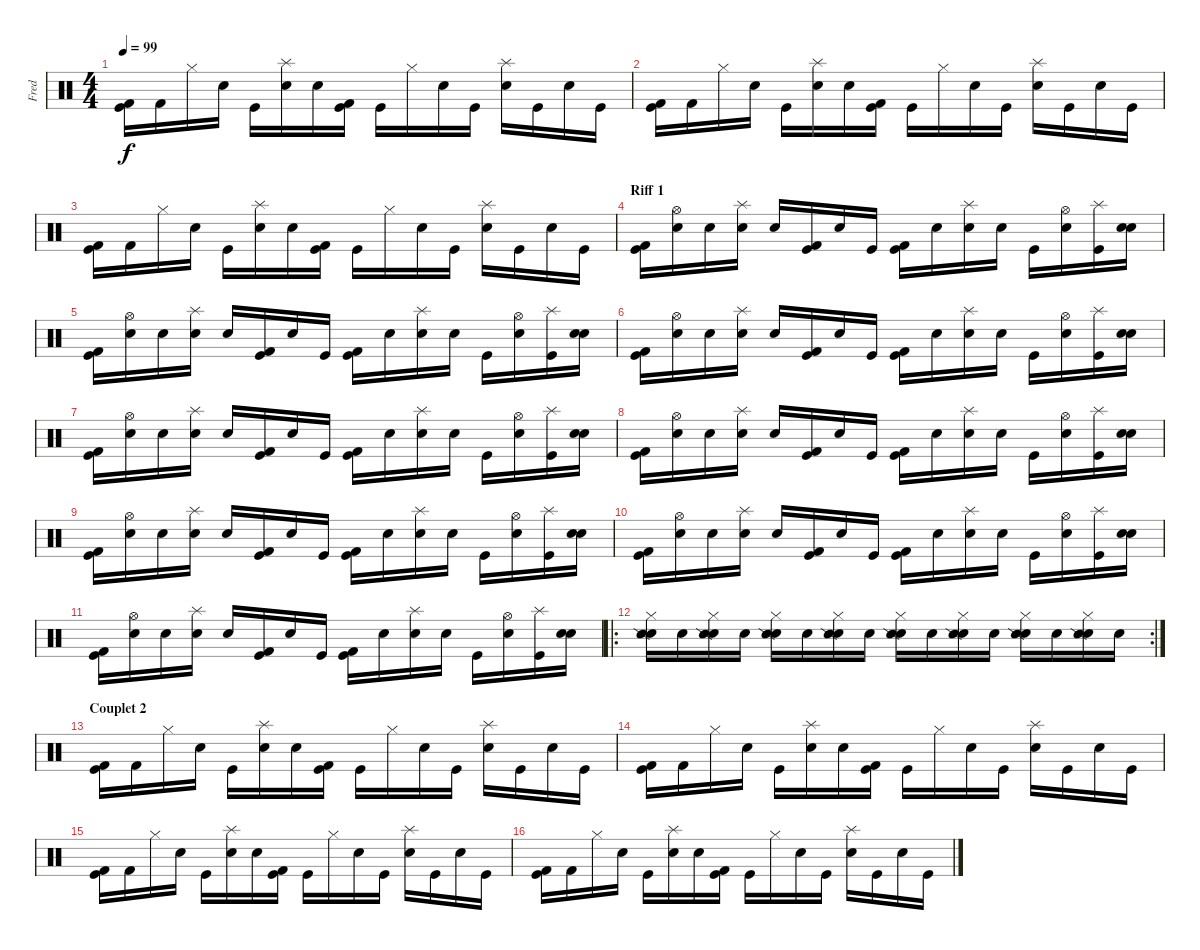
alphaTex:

\track ("Fred" "Fred") {instrument percussion}
\staff {score}
\articulation defaults
\ts (4 4)
\tempo 99
\clef neutral
\ks c
("Kick (hit) 2" "Kick (hit)").16{dy f} "Kick (hit) 2".16 "Hi-Hat (closed)".16 "Snare (hit)".16 "Kick (hit)".16 ("Snare (hit) 2" "Splash (hit)").16 "Snare (hit)".16 ("Kick (hit) 2" "Kick (hit)").16 "Kick (hit)".16 "Hi-Hat (closed)".16 "Snare (hit)".16 "Kick (hit)".16 ("Snare (hit) 2" "Splash (hit)").16 "Kick (hit)".16 "Snare (hit)".16 "Kick (hit)".16 |
("Kick (hit) 2" "Kick (hit)").16 "Kick (hit) 2".16 "Hi-Hat (closed)".16 "Snare (hit)".16 "Kick (hit)".16 ("Snare (hit) 2" "Splash (hit)").16 "Snare (hit)".16 ("Kick (hit) 2" "Kick (hit)").16 "Kick (hit)".16 "Hi-Hat (closed)".16 "Snare (hit)".16 "Kick (hit)".16 ("Snare (hit) 2" "Splash (hit)").16 "Kick (hit)".16 "Snare (hit)".16 "Kick (hit)".16 |
("Kick (hit) 2" "Kick (hit)").16 "Kick (hit) 2".16 "Hi-Hat (closed)".16 "Snare (hit)".16 "Kick (hit)".16 ("Snare (hit) 2" "Splash (hit)").16 "Snare (hit)".16 ("Kick (hit) 2" "Kick (hit)").16 "Kick (hit)".16 "Hi-Hat (closed)".16 "Snare (hit)".16 "Kick (hit)".16 ("Snare (hit) 2" "Splash (hit)").16 "Kick (hit)".16 "Snare (hit)".16 "Kick (hit)".16 |
\section ("" "Riff 1")
("Kick (hit)" "Kick (hit) 2").16 ("Hi-Hat (open)" "Snare (hit)").16 "Snare (hit)".16 ("Snare (hit) 2" "Splash (hit)").16 "Snare (hit)".16 ("Kick (hit)" "Kick (hit) 2").16 "Snare (hit)".16 "Kick (hit)".16 ("Kick (hit)" "Kick (hit) 2").16 "Snare (hit)".16 ("Snare (hit) 2" "Splash (hit)").16 "Snare (hit)".16 "Kick (hit)".16 ("Hi-Hat (open)" "Snare (hit)").16 ("Kick (hit)" "Splash (hit)").16 ("Snare (hit)" "Snare (hit)").16 |
("Kick (hit)" "Kick (hit) 2").16 ("Hi-Hat (open)" "Snare (hit)").16 "Snare (hit)".16 ("Snare (hit) 2" "Splash (hit)").16 "Snare (hit)".16 ("Kick (hit)" "Kick (hit) 2").16 "Snare (hit)".16 "Kick (hit)".16 ("Kick (hit)" "Kick (hit) 2").16 "Snare (hit)".16 ("Snare (hit) 2" "Splash (hit)").16 "Snare (hit)".16 "Kick (hit)".16 ("Hi-Hat (open)" "Snare (hit)").16 ("Kick (hit)" "Splash (hit)").16 ("Snare (hit)" "Snare (hit)").16 |
("Kick (hit)" "Kick (hit) 2").16 ("Hi-Hat (open)" "Snare (hit)").16 "Snare (hit)".16 ("Snare (hit) 2" "Splash (hit)").16 "Snare (hit)".16 ("Kick (hit)" "Kick (hit) 2").16 "Snare (hit)".16 "Kick (hit)".16 ("Kick (hit)" "Kick (hit) 2").16 "Snare (hit)".16 ("Snare (hit) 2" "Splash (hit)").16 "Snare (hit)".16 "Kick (hit)".16 ("Hi-Hat (open)" "Snare (hit)").16 ("Kick (hit)" "Splash (hit)").16 ("Snare (hit)" "Snare (hit)").16 |
("Kick (hit)" "Kick (hit) 2").16 ("Hi-Hat (open)" "Snare (hit)").16 "Snare (hit)".16 ("Snare (hit) 2" "Splash (hit)").16 "Snare (hit)".16 ("Kick (hit)" "Kick (hit) 2").16 "Snare (hit)".16 "Kick (hit)".16 ("Kick (hit)" "Kick (hit) 2").16 "Snare (hit)".16 ("Snare (hit) 2" "Splash (hit)").16 "Snare (hit)".16 "Kick (hit)".16 ("Hi-Hat (open)" "Snare (hit)").16 ("Kick (hit)" "Splash (hit)").16 ("Snare (hit)" "Snare (hit)").16 |
("Kick (hit)" "Kick (hit) 2").16 ("Hi-Hat (open)" "Snare (hit)").16 "Snare (hit)".16 ("Snare (hit) 2" "Splash (hit)").16 "Snare (hit)".16 ("Kick (hit)" "Kick (hit) 2").16 "Snare (hit)".16 "Kick (hit)".16 ("Kick (hit)" "Kick (hit) 2").16 "Snare (hit)".16 ("Snare (hit) 2" "Splash (hit)").16 "Snare (hit)".16 "Kick (hit)".16 ("Hi-Hat (open)" "Snare (hit)").16 ("Kick (hit)" "Splash (hit)").16 ("Snare (hit)" "Snare (hit)").16 |
("Kick (hit)" "Kick (hit) 2").16 ("Hi-Hat (open)" "Snare (hit)").16 "Snare (hit)".16 ("Snare (hit) 2" "Splash (hit)").16 "Snare (hit)".16 ("Kick (hit)" "Kick (hit) 2").16 "Snare (hit)".16 "Kick (hit)".16 ("Kick (hit)" "Kick (hit) 2").16 "Snare (hit)".16 ("Snare (hit) 2" "Splash (hit)").16 "Snare (hit)".16 "Kick (hit)".16 ("Hi-Hat (open)" "Snare (hit)").16 ("Kick (hit)" "Splash (hit)").16 ("Snare (hit)" "Snare (hit)").16 |
("Kick (hit)" "Kick (hit) 2").16 ("Hi-Hat (open)" "Snare (hit)").16 "Snare (hit)".16 ("Snare (hit) 2" "Splash (hit)").16 "Snare (hit)".16 ("Kick (hit)" "Kick (hit) 2").16 "Snare (hit)".16 "Kick (hit)".16 ("Kick (hit)" "Kick (hit) 2").16 "Snare (hit)".16 ("Snare (hit) 2" "Splash (hit)").16 "Snare (hit)".16 "Kick (hit)".16 ("Hi-Hat (open)" "Snare (hit)").16 ("Kick (hit)" "Splash (hit)").16 ("Snare (hit)" "Snare (hit)").16 |
("Kick (hit)" "Kick (hit) 2").16 ("Hi-Hat (open)" "Snare (hit)").16 "Snare (hit)".16 ("Snare (hit) 2" "Splash (hit)").16 "Snare (hit)".16 ("Kick (hit)" "Kick (hit) 2").16 "Snare (hit)".16 "Kick (hit)".16 ("Kick (hit)" "Kick (hit) 2").16 "Snare (hit)".16 ("Snare (hit) 2" "Splash (hit)").16 "Snare (hit)".16 "Kick (hit)".16 ("Hi-Hat (open)" "Snare (hit)").16 ("Kick (hit)" "Splash (hit)").16 ("Snare (hit)" "Snare (hit)").16 |
\ro
\rc 2
("Electric Snare (hit)" "Snare (side stick) 2" "Hi-Hat (closed)").16 "Snare (hit)".16 ("Electric Snare (hit)" "Snare (side stick) 2" "Hi-Hat (closed)").16 "Snare (hit)".16 ("Electric Snare (hit)" "Snare (side stick) 2" "Hi-Hat (closed)").16 "Snare (hit)".16 ("Electric Snare (hit)" "Snare (side stick) 2" "Hi-Hat (closed)").16 "Snare (hit)".16 ("Electric Snare (hit)" "Snare (side stick) 2" "Hi-Hat (closed)").16 "Snare (hit)".16 ("Electric Snare (hit)" "Snare (side stick) 2" "Hi-Hat (closed)").16 "Snare (hit)".16 ("Electric Snare (hit)" "Snare (side stick) 2" "Hi-Hat (closed)").16 "Snare (hit)".16 ("Electric Snare (hit)" "Snare (side stick) 2" "Hi-Hat (closed)").16 "Snare (hit)".16 |
\section ("" "Couplet 2")
("Kick (hit) 2" "Kick (hit)").16 "Kick (hit) 2".16 "Hi-Hat (closed)".16 "Snare (hit)".16 "Kick (hit)".16 ("Snare (hit) 2" "Splash (hit)").16 "Snare (hit)".16 ("Kick (hit) 2" "Kick (hit)").16 "Kick (hit)".16 "Hi-Hat (closed)".16 "Snare (hit)".16 "Kick (hit)".16 ("Snare (hit) 2" "Splash (hit)").16 "Kick (hit)".16 "Snare (hit)".16 "Kick (hit)".16 |
("Kick (hit) 2" "Kick (hit)").16 "Kick (hit) 2".16 "Hi-Hat (closed)".16 "Snare (hit)".16 "Kick (hit)".16 ("Snare (hit) 2" "Splash (hit)").16 "Snare (hit)".16 ("Kick (hit) 2" "Kick (hit)").16 "Kick (hit)".16 "Hi-Hat (closed)".16 "Snare (hit)".16 "Kick (hit)".16 ("Snare (hit) 2" "Splash (hit)").16 "Kick (hit)".16 "Snare (hit)".16 "Kick (hit)".16 |
("Kick (hit) 2" "Kick (hit)").16 "Kick (hit) 2".16 "Hi-Hat (closed)".16 "Snare (hit)".16 "Kick (hit)".16 ("Snare (hit) 2" "Splash (hit)").16 "Snare (hit)".16 ("Kick (hit) 2" "Kick (hit)").16 "Kick (hit)".16 "Hi-Hat (closed)".16 "Snare (hit)".16 "Kick (hit)".16 ("Snare (hit) 2" "Splash (hit)").16 "Kick (hit)".16 "Snare (hit)".16 "Kick (hit)".16 |
("Kick (hit) 2" "Kick (hit)").16 "Kick (hit) 2".16 "Hi-Hat (closed)".16 "Snare (hit)".16 "Kick (hit)".16 ("Snare (hit) 2" "Splash (hit)").16 "Snare (hit)".16 ("Kick (hit) 2" "Kick (hit)").16 "Kick (hit)".16 "Hi-Hat (closed)".16 "Snare (hit)".16 "Kick (hit)".16 ("Snare (hit) 2" "Splash (hit)").16 "Kick (hit)".16 "Snare (hit)".16 "Kick (hit)".16
